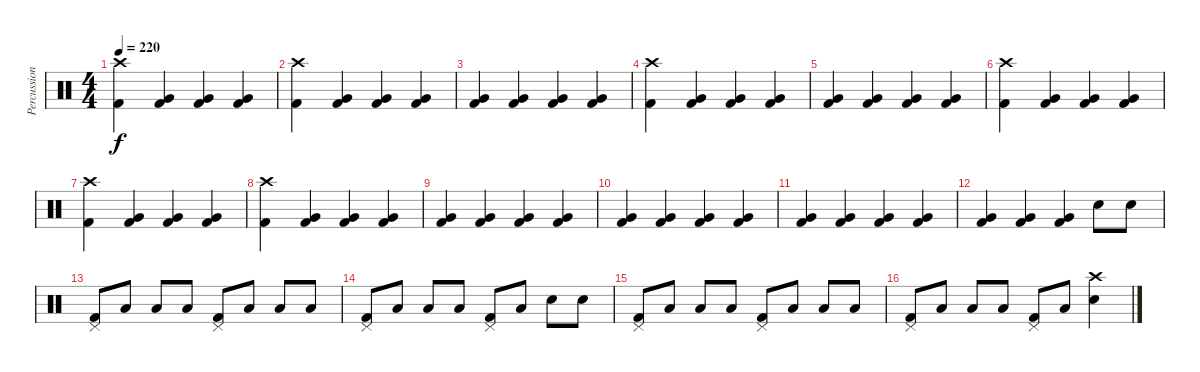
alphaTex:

\track ("Percussion" "Percussion") {instrument percussion}
\staff {score}
\articulation defaults
\ts (4 4)
\tempo 220
\clef neutral
\ks c
("Crash high (hit)" "Kick (hit) 2").4{dy f} ("Very Low Tom (hit)" "Kick (hit) 2").4 ("Very Low Tom (hit)" "Kick (hit) 2").4 ("Very Low Tom (hit)" "Kick (hit) 2").4 |
("Crash high (hit)" "Kick (hit) 2").4 ("Very Low Tom (hit)" "Kick (hit) 2").4 ("Very Low Tom (hit)" "Kick (hit) 2").4 ("Very Low Tom (hit)" "Kick (hit) 2").4 |
("Very Low Tom (hit)" "Kick (hit) 2").4 ("Very Low Tom (hit)" "Kick (hit) 2").4 ("Very Low Tom (hit)" "Kick (hit) 2").4 ("Very Low Tom (hit)" "Kick (hit) 2").4 |
("Crash high (hit)" "Kick (hit) 2").4 ("Very Low Tom (hit)" "Kick (hit) 2").4 ("Very Low Tom (hit)" "Kick (hit) 2").4 ("Very Low Tom (hit)" "Kick (hit) 2").4 |
("Very Low Tom (hit)" "Kick (hit) 2").4 ("Very Low Tom (hit)" "Kick (hit) 2").4 ("Very Low Tom (hit)" "Kick (hit) 2").4 ("Very Low Tom (hit)" "Kick (hit) 2").4 |
("Crash high (hit)" "Kick (hit) 2").4 ("Very Low Tom (hit)" "Kick (hit) 2").4 ("Very Low Tom (hit)" "Kick (hit) 2").4 ("Very Low Tom (hit)" "Kick (hit) 2").4 |
("Crash high (hit)" "Kick (hit) 2").4 ("Very Low Tom (hit)" "Kick (hit) 2").4 ("Very Low Tom (hit)" "Kick (hit) 2").4 ("Very Low Tom (hit)" "Kick (hit) 2").4 |
("Crash high (hit)" "Kick (hit) 2").4 ("Very Low Tom (hit)" "Kick (hit) 2").4 ("Very Low Tom (hit)" "Kick (hit) 2").4 ("Very Low Tom (hit)" "Kick (hit) 2").4 |
("Very Low Tom (hit)" "Kick (hit) 2").4 ("Very Low Tom (hit)" "Kick (hit) 2").4 ("Very Low Tom (hit)" "Kick (hit) 2").4 ("Very Low Tom (hit)" "Kick (hit) 2").4 |
("Very Low Tom (hit)" "Kick (hit) 2").4 ("Very Low Tom (hit)" "Kick (hit) 2").4 ("Very Low Tom (hit)" "Kick (hit) 2").4 ("Very Low Tom (hit)" "Kick (hit) 2").4 |
("Very Low Tom (hit)" "Kick (hit) 2").4 ("Very Low Tom (hit)" "Kick (hit) 2").4 ("Very Low Tom (hit)" "Kick (hit) 2").4 ("Very Low Tom (hit)" "Kick (hit) 2").4 |
("Very Low Tom (hit)" "Kick (hit) 2").4 ("Very Low Tom (hit)" "Kick (hit) 2").4 ("Very Low Tom (hit)" "Kick (hit) 2").4 "Snare (hit) 2".8 "Snare (hit) 2".8 |
("Pedal Hi-Hat (hit)" "Kick (hit) 2").8 "Low Tom (hit)".8 "Low Tom (hit)".8 "Low Tom (hit)".8 ("Pedal Hi-Hat (hit)" "Kick (hit) 2").8 "Low Tom (hit)".8 "Low Tom (hit)".8 "Low Tom (hit)".8 |
("Pedal Hi-Hat (hit)" "Kick (hit) 2").8 "Low Tom (hit)".8 "Low Tom (hit)".8 "Low Tom (hit)".8 ("Pedal Hi-Hat (hit)" "Kick (hit) 2").8 "Low Tom (hit)".8 "Snare (hit) 2".8 "Snare (hit) 2".8 |
("Pedal Hi-Hat (hit)" "Kick (hit) 2").8 "Low Tom (hit)".8 "Low Tom (hit)".8 "Low Tom (hit)".8 ("Pedal Hi-Hat (hit)" "Kick (hit) 2").8 "Low Tom (hit)".8 "Low Tom (hit)".8 "Low Tom (hit)".8 |
("Pedal Hi-Hat (hit)" "Kick (hit) 2").8 "Low Tom (hit)".8 "Low Tom (hit)".8 "Low Tom (hit)".8 ("Pedal Hi-Hat (hit)" "Kick (hit) 2").8 "Low Tom (hit)".8 ("Crash high (hit)" "Snare (hit) 2").4
